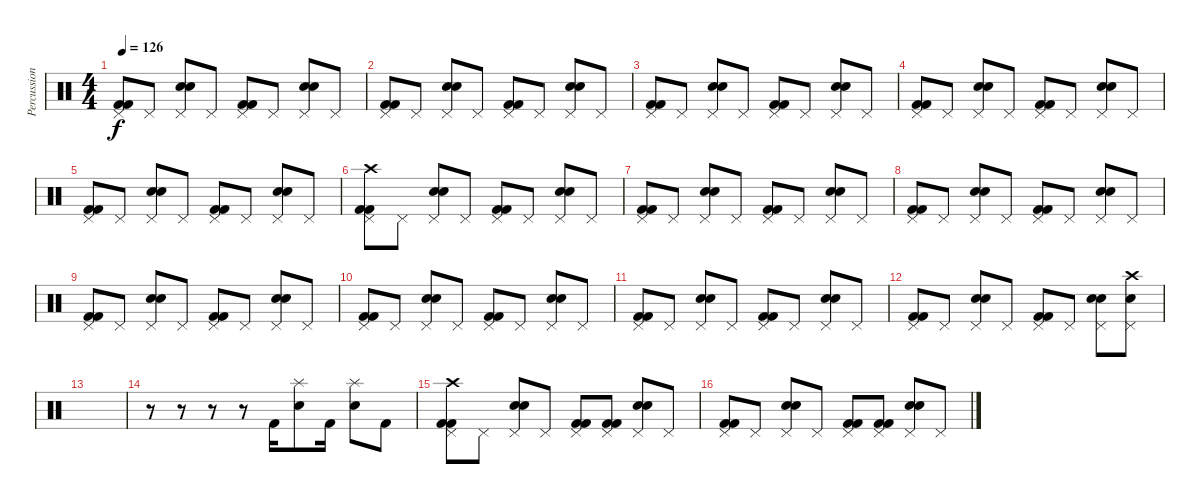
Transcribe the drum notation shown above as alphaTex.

\track ("Percussion" "Percussion") {instrument percussion}
\staff {score}
\articulation defaults
\ts (4 4)
\tempo 126
\clef neutral
\ks c
("Pedal Hi-Hat (hit)" "Kick (hit) 2" "Kick (hit) 2").8{dy f} "Pedal Hi-Hat (hit)".8 ("Pedal Hi-Hat (hit)" "Electric Snare (hit)" "Snare (hit) 2").8 "Pedal Hi-Hat (hit)".8 ("Pedal Hi-Hat (hit)" "Kick (hit) 2" "Kick (hit) 2").8 "Pedal Hi-Hat (hit)".8 ("Pedal Hi-Hat (hit)" "Electric Snare (hit)" "Snare (hit) 2").8 "Pedal Hi-Hat (hit)".8 |
("Pedal Hi-Hat (hit)" "Kick (hit) 2" "Kick (hit) 2").8 "Pedal Hi-Hat (hit)".8 ("Pedal Hi-Hat (hit)" "Electric Snare (hit)" "Snare (hit) 2").8 "Pedal Hi-Hat (hit)".8 ("Pedal Hi-Hat (hit)" "Kick (hit) 2" "Kick (hit) 2").8 "Pedal Hi-Hat (hit)".8 ("Pedal Hi-Hat (hit)" "Electric Snare (hit)" "Snare (hit) 2").8 "Pedal Hi-Hat (hit)".8 |
("Pedal Hi-Hat (hit)" "Kick (hit) 2" "Kick (hit) 2").8 "Pedal Hi-Hat (hit)".8 ("Pedal Hi-Hat (hit)" "Electric Snare (hit)" "Snare (hit) 2").8 "Pedal Hi-Hat (hit)".8 ("Pedal Hi-Hat (hit)" "Kick (hit) 2" "Kick (hit) 2").8 "Pedal Hi-Hat (hit)".8 ("Pedal Hi-Hat (hit)" "Electric Snare (hit)" "Snare (hit) 2").8 "Pedal Hi-Hat (hit)".8 |
("Pedal Hi-Hat (hit)" "Kick (hit) 2" "Kick (hit) 2").8 "Pedal Hi-Hat (hit)".8 ("Pedal Hi-Hat (hit)" "Electric Snare (hit)" "Snare (hit) 2").8 "Pedal Hi-Hat (hit)".8 ("Pedal Hi-Hat (hit)" "Kick (hit) 2" "Kick (hit) 2").8 "Pedal Hi-Hat (hit)".8 ("Pedal Hi-Hat (hit)" "Electric Snare (hit)" "Snare (hit) 2").8 "Pedal Hi-Hat (hit)".8 |
("Pedal Hi-Hat (hit)" "Kick (hit) 2" "Kick (hit) 2").8 "Pedal Hi-Hat (hit)".8 ("Pedal Hi-Hat (hit)" "Electric Snare (hit)" "Snare (hit) 2").8 "Pedal Hi-Hat (hit)".8 ("Pedal Hi-Hat (hit)" "Kick (hit) 2" "Kick (hit) 2").8 "Pedal Hi-Hat (hit)".8 ("Pedal Hi-Hat (hit)" "Electric Snare (hit)" "Snare (hit) 2").8 "Pedal Hi-Hat (hit)".8 |
("Pedal Hi-Hat (hit)" "Crash high (hit)" "Kick (hit) 2" "Kick (hit) 2").8 "Pedal Hi-Hat (hit)".8 ("Pedal Hi-Hat (hit)" "Electric Snare (hit)" "Snare (hit) 2").8 "Pedal Hi-Hat (hit)".8 ("Pedal Hi-Hat (hit)" "Kick (hit) 2" "Kick (hit) 2").8 "Pedal Hi-Hat (hit)".8 ("Pedal Hi-Hat (hit)" "Electric Snare (hit)" "Snare (hit) 2").8 "Pedal Hi-Hat (hit)".8 |
("Pedal Hi-Hat (hit)" "Kick (hit) 2" "Kick (hit) 2").8 "Pedal Hi-Hat (hit)".8 ("Pedal Hi-Hat (hit)" "Electric Snare (hit)" "Snare (hit) 2").8 "Pedal Hi-Hat (hit)".8 ("Pedal Hi-Hat (hit)" "Kick (hit) 2" "Kick (hit) 2").8 "Pedal Hi-Hat (hit)".8 ("Pedal Hi-Hat (hit)" "Electric Snare (hit)" "Snare (hit) 2").8 "Pedal Hi-Hat (hit)".8 |
("Pedal Hi-Hat (hit)" "Kick (hit) 2" "Kick (hit) 2").8 "Pedal Hi-Hat (hit)".8 ("Pedal Hi-Hat (hit)" "Electric Snare (hit)" "Snare (hit) 2").8 "Pedal Hi-Hat (hit)".8 ("Pedal Hi-Hat (hit)" "Kick (hit) 2" "Kick (hit) 2").8 "Pedal Hi-Hat (hit)".8 ("Pedal Hi-Hat (hit)" "Electric Snare (hit)" "Snare (hit) 2").8 "Pedal Hi-Hat (hit)".8 |
("Pedal Hi-Hat (hit)" "Kick (hit) 2" "Kick (hit) 2").8 "Pedal Hi-Hat (hit)".8 ("Pedal Hi-Hat (hit)" "Electric Snare (hit)" "Snare (hit) 2").8 "Pedal Hi-Hat (hit)".8 ("Pedal Hi-Hat (hit)" "Kick (hit) 2" "Kick (hit) 2").8 "Pedal Hi-Hat (hit)".8 ("Pedal Hi-Hat (hit)" "Electric Snare (hit)" "Snare (hit) 2").8 "Pedal Hi-Hat (hit)".8 |
("Pedal Hi-Hat (hit)" "Kick (hit) 2" "Kick (hit) 2").8 "Pedal Hi-Hat (hit)".8 ("Pedal Hi-Hat (hit)" "Electric Snare (hit)" "Snare (hit) 2").8 "Pedal Hi-Hat (hit)".8 ("Pedal Hi-Hat (hit)" "Kick (hit) 2" "Kick (hit) 2").8 "Pedal Hi-Hat (hit)".8 ("Pedal Hi-Hat (hit)" "Electric Snare (hit)" "Snare (hit) 2").8 "Pedal Hi-Hat (hit)".8 |
("Pedal Hi-Hat (hit)" "Kick (hit) 2" "Kick (hit) 2").8 "Pedal Hi-Hat (hit)".8 ("Pedal Hi-Hat (hit)" "Electric Snare (hit)" "Snare (hit) 2").8 "Pedal Hi-Hat (hit)".8 ("Pedal Hi-Hat (hit)" "Kick (hit) 2" "Kick (hit) 2").8 "Pedal Hi-Hat (hit)".8 ("Pedal Hi-Hat (hit)" "Electric Snare (hit)" "Snare (hit) 2").8 "Pedal Hi-Hat (hit)".8 |
("Pedal Hi-Hat (hit)" "Kick (hit) 2" "Kick (hit) 2").8 "Pedal Hi-Hat (hit)".8 ("Pedal Hi-Hat (hit)" "Electric Snare (hit)" "Snare (hit) 2").8 "Pedal Hi-Hat (hit)".8 ("Pedal Hi-Hat (hit)" "Kick (hit) 2" "Kick (hit) 2").8 "Pedal Hi-Hat (hit)".8 ("Pedal Hi-Hat (hit)" "Electric Snare (hit)" "Snare (hit) 2").8 ("Pedal Hi-Hat (hit)" "Crash high (hit)" "Electric Snare (hit)").8 |
|
r.8 r.8 r.8 r.8 "Kick (hit) 2".16 ("Splash (hit)" "Electric Snare (hit)").8 "Kick (hit) 2".16 ("Splash (hit)" "Electric Snare (hit)").8 "Kick (hit) 2".8 |
("Pedal Hi-Hat (hit)" "Crash high (hit)" "Kick (hit) 2" "Kick (hit) 2").8 "Pedal Hi-Hat (hit)".8 ("Pedal Hi-Hat (hit)" "Electric Snare (hit)" "Snare (hit) 2").8 "Pedal Hi-Hat (hit)".8 ("Pedal Hi-Hat (hit)" "Kick (hit) 2" "Kick (hit) 2").8 ("Pedal Hi-Hat (hit)" "Kick (hit) 2" "Kick (hit) 2").8 ("Pedal Hi-Hat (hit)" "Electric Snare (hit)" "Snare (hit) 2").8 "Pedal Hi-Hat (hit)".8 |
("Pedal Hi-Hat (hit)" "Kick (hit) 2" "Kick (hit) 2").8 "Pedal Hi-Hat (hit)".8 ("Pedal Hi-Hat (hit)" "Electric Snare (hit)" "Snare (hit) 2").8 "Pedal Hi-Hat (hit)".8 ("Pedal Hi-Hat (hit)" "Kick (hit) 2" "Kick (hit) 2").8 ("Pedal Hi-Hat (hit)" "Kick (hit) 2" "Kick (hit) 2").8 ("Pedal Hi-Hat (hit)" "Electric Snare (hit)" "Snare (hit) 2").8 "Pedal Hi-Hat (hit)".8
